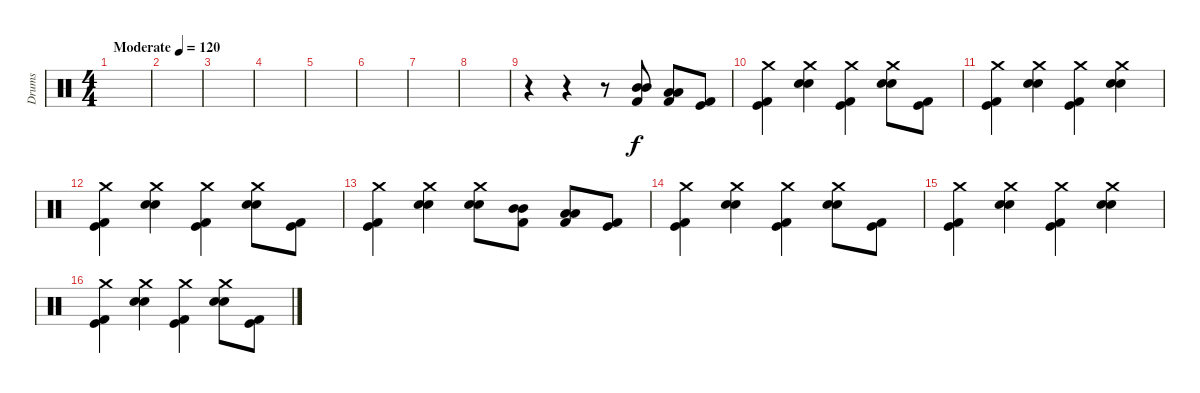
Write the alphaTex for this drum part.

\track ("Drums" "Drums") {instrument percussion}
\staff {score}
\articulation defaults
\ts (4 4)
\tempo (120 "Moderate")
\clef neutral
\ks c
|
|
|
|
|
|
|
|
r.4 r.4 r.8 ("Mid Tom (hit)" "Mid Tom (hit)" "Kick (hit) 2").8 ("Low Tom (hit)" "Low Tom (hit)" "Kick (hit) 2").8 ("Kick (hit)" "Kick (hit) 2").8 |
("Crash medium (hit)" "Kick (hit)" "Kick (hit) 2").4 ("Crash medium (hit)" "Electric Snare (hit)" "Electric Snare (hit)").4 ("Crash medium (hit)" "Kick (hit)" "Kick (hit) 2").4 ("Crash medium (hit)" "Electric Snare (hit)" "Electric Snare (hit)").8 ("Kick (hit)" "Kick (hit) 2").8 |
("Crash medium (hit)" "Kick (hit)" "Kick (hit) 2").4 ("Crash medium (hit)" "Electric Snare (hit)" "Electric Snare (hit)").4 ("Crash medium (hit)" "Kick (hit)" "Kick (hit) 2").4 ("Crash medium (hit)" "Electric Snare (hit)" "Electric Snare (hit)").4 |
("Crash medium (hit)" "Kick (hit)" "Kick (hit) 2").4 ("Crash medium (hit)" "Electric Snare (hit)" "Electric Snare (hit)").4 ("Crash medium (hit)" "Kick (hit)" "Kick (hit) 2").4 ("Crash medium (hit)" "Electric Snare (hit)" "Electric Snare (hit)").8 ("Kick (hit)" "Kick (hit) 2").8 |
("Crash medium (hit)" "Kick (hit)" "Kick (hit) 2").4 ("Crash medium (hit)" "Electric Snare (hit)" "Electric Snare (hit)").4 ("Crash medium (hit)" "Electric Snare (hit)" "Electric Snare (hit)").8 ("Mid Tom (hit)" "Mid Tom (hit)" "Kick (hit) 2").8 ("Low Tom (hit)" "Low Tom (hit)" "Kick (hit) 2").8 ("Kick (hit)" "Kick (hit) 2").8 |
("Crash medium (hit)" "Kick (hit)" "Kick (hit) 2").4 ("Crash medium (hit)" "Electric Snare (hit)" "Electric Snare (hit)").4 ("Crash medium (hit)" "Kick (hit)" "Kick (hit) 2").4 ("Crash medium (hit)" "Electric Snare (hit)" "Electric Snare (hit)").8 ("Kick (hit)" "Kick (hit) 2").8 |
("Crash medium (hit)" "Kick (hit)" "Kick (hit) 2").4 ("Crash medium (hit)" "Electric Snare (hit)" "Electric Snare (hit)").4 ("Crash medium (hit)" "Kick (hit)" "Kick (hit) 2").4 ("Crash medium (hit)" "Electric Snare (hit)" "Electric Snare (hit)").4 |
("Crash medium (hit)" "Kick (hit)" "Kick (hit) 2").4 ("Crash medium (hit)" "Electric Snare (hit)" "Electric Snare (hit)").4 ("Crash medium (hit)" "Kick (hit)" "Kick (hit) 2").4 ("Crash medium (hit)" "Electric Snare (hit)" "Electric Snare (hit)").8 ("Kick (hit)" "Kick (hit) 2").8
